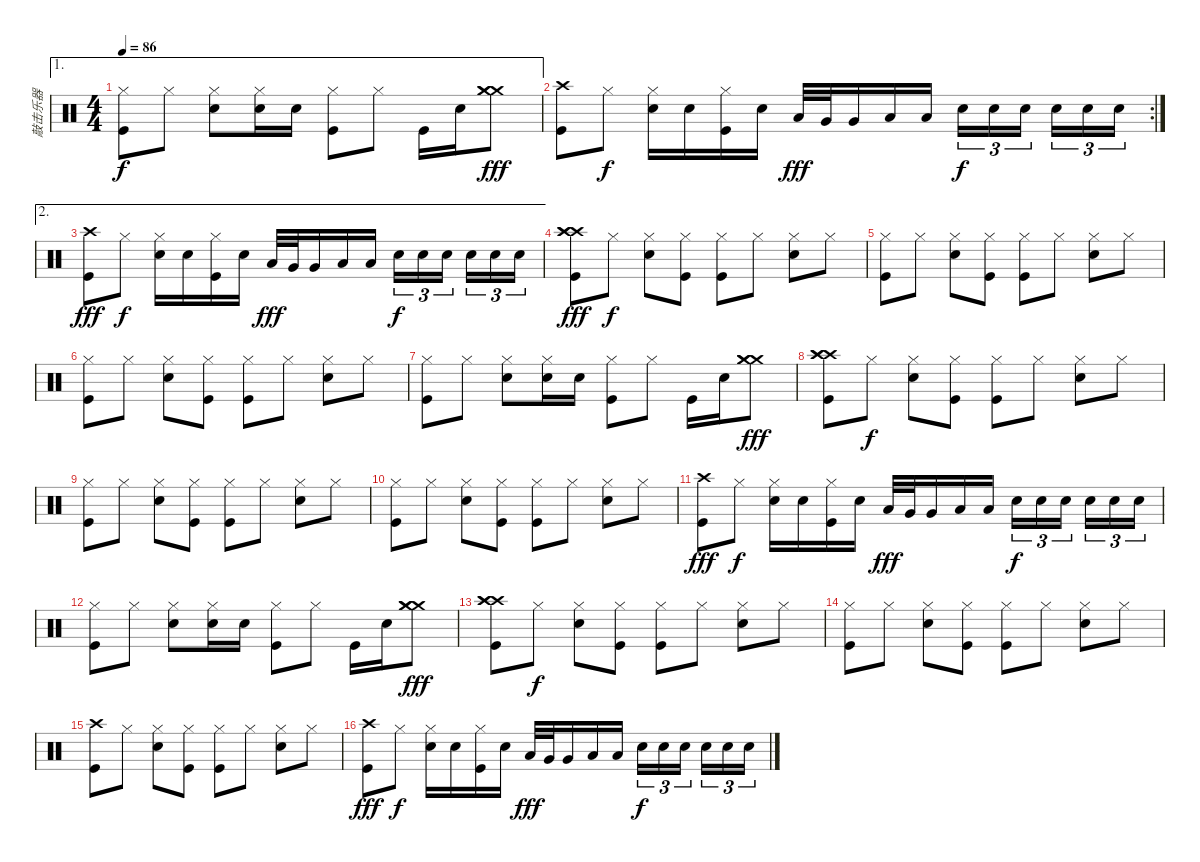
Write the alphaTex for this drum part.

\track ("敲击乐器" "敲击乐器") {instrument percussion}
\staff {score}
\articulation defaults
\ae 1
\ts (4 4)
\tempo 86
\clef neutral
\ks c
("Hi-Hat (closed)" "Kick (hit)").8{dy f} "Hi-Hat (closed)".8 ("Hi-Hat (closed)" "Electric Snare (hit)").8 ("Hi-Hat (closed)" "Electric Snare (hit)").16 "Electric Snare (hit)".16 ("Hi-Hat (closed)" "Kick (hit)").8 "Hi-Hat (closed)".8 "Kick (hit)".16 "Electric Snare (hit)".16 ("Crash medium (hit)" "Crash medium (hit)" "Crash medium (hit)").8{dy fff} |
\rc 2
("Crash high (hit)" "Kick (hit)").8 "Hi-Hat (closed)".8{dy f} ("Hi-Hat (closed)" "Electric Snare (hit)").16 "Electric Snare (hit)".16 ("Hi-Hat (closed)" "Kick (hit)").16 "Electric Snare (hit)".16 "Low Tom (hit)".32{dy fff} "Very Low Tom (hit)".32 "Very Low Tom (hit)".16 "Low Floor Tom (hit)".16 "Low Floor Tom (hit)".16 "Electric Snare (hit)".16{tu (3 2) dy f} "Electric Snare (hit)".16{tu (3 2)} "Electric Snare (hit)".16{tu (3 2) beam splitsecondary} "Electric Snare (hit)".16{tu (3 2)} "Electric Snare (hit)".16{tu (3 2)} "Electric Snare (hit)".16{tu (3 2)} |
\ae 2
("Crash high (hit)" "Kick (hit)").8{dy fff} "Hi-Hat (closed)".8{dy f} ("Hi-Hat (closed)" "Electric Snare (hit)").16 "Electric Snare (hit)".16 ("Hi-Hat (closed)" "Kick (hit)").16 "Electric Snare (hit)".16 "Low Tom (hit)".32{dy fff} "Very Low Tom (hit)".32 "Very Low Tom (hit)".16 "Low Floor Tom (hit)".16 "Low Floor Tom (hit)".16 "Electric Snare (hit)".16{tu (3 2) dy f} "Electric Snare (hit)".16{tu (3 2)} "Electric Snare (hit)".16{tu (3 2) beam splitsecondary} "Electric Snare (hit)".16{tu (3 2)} "Electric Snare (hit)".16{tu (3 2)} "Electric Snare (hit)".16{tu (3 2)} |
("Crash high (hit)" "Crash high (hit)" "Crash high (hit)" "Kick (hit)").8{dy fff} "Hi-Hat (closed)".8{dy f} ("Hi-Hat (closed)" "Electric Snare (hit)").8 ("Hi-Hat (closed)" "Kick (hit)").8 ("Hi-Hat (closed)" "Kick (hit)").8 "Hi-Hat (closed)".8 ("Hi-Hat (closed)" "Electric Snare (hit)").8 "Hi-Hat (closed)".8 |
("Hi-Hat (closed)" "Kick (hit)").8 "Hi-Hat (closed)".8 ("Hi-Hat (closed)" "Electric Snare (hit)").8 ("Hi-Hat (closed)" "Kick (hit)").8 ("Hi-Hat (closed)" "Kick (hit)").8 "Hi-Hat (closed)".8 ("Hi-Hat (closed)" "Electric Snare (hit)").8 "Hi-Hat (closed)".8 |
("Hi-Hat (closed)" "Kick (hit)").8 "Hi-Hat (closed)".8 ("Hi-Hat (closed)" "Electric Snare (hit)").8 ("Hi-Hat (closed)" "Kick (hit)").8 ("Hi-Hat (closed)" "Kick (hit)").8 "Hi-Hat (closed)".8 ("Hi-Hat (closed)" "Electric Snare (hit)").8 "Hi-Hat (closed)".8 |
("Hi-Hat (closed)" "Kick (hit)").8 "Hi-Hat (closed)".8 ("Hi-Hat (closed)" "Electric Snare (hit)").8 ("Hi-Hat (closed)" "Electric Snare (hit)").16 "Electric Snare (hit)".16 ("Hi-Hat (closed)" "Kick (hit)").8 "Hi-Hat (closed)".8 "Kick (hit)".16 "Electric Snare (hit)".16 ("Crash medium (hit)" "Crash medium (hit)" "Crash medium (hit)").8{dy fff} |
("Crash high (hit)" "Crash high (hit)" "Crash high (hit)" "Kick (hit)").8 "Hi-Hat (closed)".8{dy f} ("Hi-Hat (closed)" "Electric Snare (hit)").8 ("Hi-Hat (closed)" "Kick (hit)").8 ("Hi-Hat (closed)" "Kick (hit)").8 "Hi-Hat (closed)".8 ("Hi-Hat (closed)" "Electric Snare (hit)").8 "Hi-Hat (closed)".8 |
("Hi-Hat (closed)" "Kick (hit)").8 "Hi-Hat (closed)".8 ("Hi-Hat (closed)" "Electric Snare (hit)").8 ("Hi-Hat (closed)" "Kick (hit)").8 ("Hi-Hat (closed)" "Kick (hit)").8 "Hi-Hat (closed)".8 ("Hi-Hat (closed)" "Electric Snare (hit)").8 "Hi-Hat (closed)".8 |
("Hi-Hat (closed)" "Kick (hit)").8 "Hi-Hat (closed)".8 ("Hi-Hat (closed)" "Electric Snare (hit)").8 ("Hi-Hat (closed)" "Kick (hit)").8 ("Hi-Hat (closed)" "Kick (hit)").8 "Hi-Hat (closed)".8 ("Hi-Hat (closed)" "Electric Snare (hit)").8 "Hi-Hat (closed)".8 |
("Crash high (hit)" "Kick (hit)").8{dy fff} "Hi-Hat (closed)".8{dy f} ("Hi-Hat (closed)" "Electric Snare (hit)").16 "Electric Snare (hit)".16 ("Hi-Hat (closed)" "Kick (hit)").16 "Electric Snare (hit)".16 "Low Tom (hit)".32{dy fff} "Very Low Tom (hit)".32 "Very Low Tom (hit)".16 "Low Floor Tom (hit)".16 "Low Floor Tom (hit)".16 "Electric Snare (hit)".16{tu (3 2) dy f} "Electric Snare (hit)".16{tu (3 2)} "Electric Snare (hit)".16{tu (3 2) beam splitsecondary} "Electric Snare (hit)".16{tu (3 2)} "Electric Snare (hit)".16{tu (3 2)} "Electric Snare (hit)".16{tu (3 2)} |
("Hi-Hat (closed)" "Kick (hit)").8 "Hi-Hat (closed)".8 ("Hi-Hat (closed)" "Electric Snare (hit)").8 ("Hi-Hat (closed)" "Electric Snare (hit)").16 "Electric Snare (hit)".16 ("Hi-Hat (closed)" "Kick (hit)").8 "Hi-Hat (closed)".8 "Kick (hit)".16 "Electric Snare (hit)".16 ("Crash medium (hit)" "Crash medium (hit)" "Crash medium (hit)").8{dy fff} |
("Crash high (hit)" "Crash high (hit)" "Crash high (hit)" "Kick (hit)").8 "Hi-Hat (closed)".8{dy f} ("Hi-Hat (closed)" "Electric Snare (hit)").8 ("Hi-Hat (closed)" "Kick (hit)").8 ("Hi-Hat (closed)" "Kick (hit)").8 "Hi-Hat (closed)".8 ("Hi-Hat (closed)" "Electric Snare (hit)").8 "Hi-Hat (closed)".8 |
("Hi-Hat (closed)" "Kick (hit)").8 "Hi-Hat (closed)".8 ("Hi-Hat (closed)" "Electric Snare (hit)").8 ("Hi-Hat (closed)" "Kick (hit)").8 ("Hi-Hat (closed)" "Kick (hit)").8 "Hi-Hat (closed)".8 ("Hi-Hat (closed)" "Electric Snare (hit)").8 "Hi-Hat (closed)".8 |
("Crash high (hit)" "Kick (hit)").8 "Hi-Hat (closed)".8 ("Hi-Hat (closed)" "Electric Snare (hit)").8 ("Hi-Hat (closed)" "Kick (hit)").8 ("Hi-Hat (closed)" "Kick (hit)").8 "Hi-Hat (closed)".8 ("Hi-Hat (closed)" "Electric Snare (hit)").8 "Hi-Hat (closed)".8 |
("Crash high (hit)" "Kick (hit)").8{dy fff} "Hi-Hat (closed)".8{dy f} ("Hi-Hat (closed)" "Electric Snare (hit)").16 "Electric Snare (hit)".16 ("Hi-Hat (closed)" "Kick (hit)").16 "Electric Snare (hit)".16 "Low Tom (hit)".32{dy fff} "Very Low Tom (hit)".32 "Very Low Tom (hit)".16 "Low Floor Tom (hit)".16 "Low Floor Tom (hit)".16 "Electric Snare (hit)".16{tu (3 2) dy f} "Electric Snare (hit)".16{tu (3 2)} "Electric Snare (hit)".16{tu (3 2) beam splitsecondary} "Electric Snare (hit)".16{tu (3 2)} "Electric Snare (hit)".16{tu (3 2)} "Electric Snare (hit)".16{tu (3 2)}
